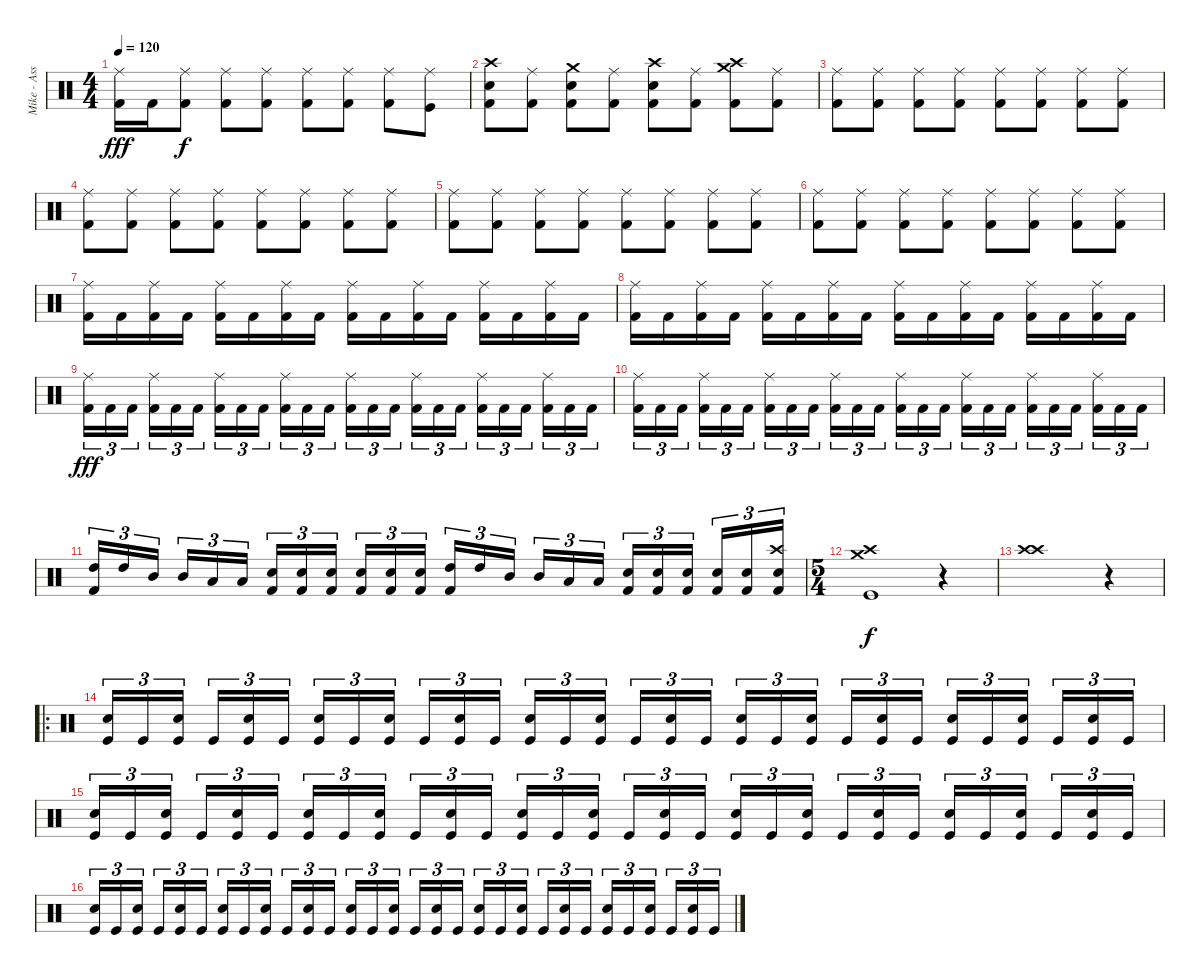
\track ("Mike - Assualt And Battery" "Mike - Ass") {instrument percussion}
\staff {score}
\articulation defaults
\ts (4 4)
\tempo 120
\clef neutral
\ks c
("Ride (middle)" "Kick (hit) 2").16{dy fff} "Kick (hit) 2".16 ("Ride (middle)" "Kick (hit) 2").8{dy f} ("Ride (middle)" "Kick (hit) 2").8 ("Ride (middle)" "Kick (hit) 2").8 ("Ride (middle)" "Kick (hit) 2").8 ("Ride (middle)" "Kick (hit) 2").8 ("Ride (middle)" "Kick (hit) 2").8 ("Ride (middle)" "Kick (hit)").8 |
("Crash high (hit)" "Electric Snare (hit)" "Kick (hit) 2").8 ("Ride (middle)" "Kick (hit) 2").8 ("Crash medium (hit)" "Electric Snare (hit)" "Kick (hit) 2").8 ("Ride (middle)" "Kick (hit) 2").8 ("Crash high (hit)" "Electric Snare (hit)" "Kick (hit) 2").8 ("Ride (middle)" "Kick (hit) 2").8 ("Crash medium (hit)" "Crash high (hit)" "Kick (hit) 2").8 ("Ride (middle)" "Kick (hit) 2").8 |
("Ride (middle)" "Kick (hit) 2").8 ("Ride (middle)" "Kick (hit) 2").8 ("Ride (middle)" "Kick (hit) 2").8 ("Ride (middle)" "Kick (hit) 2").8 ("Ride (middle)" "Kick (hit) 2").8 ("Ride (middle)" "Kick (hit) 2").8 ("Ride (middle)" "Kick (hit) 2").8 ("Ride (middle)" "Kick (hit) 2").8 |
("Ride (middle)" "Kick (hit) 2").8 ("Ride (middle)" "Kick (hit) 2").8 ("Ride (middle)" "Kick (hit) 2").8 ("Ride (middle)" "Kick (hit) 2").8 ("Ride (middle)" "Kick (hit) 2").8 ("Ride (middle)" "Kick (hit) 2").8 ("Ride (middle)" "Kick (hit) 2").8 ("Ride (middle)" "Kick (hit) 2").8 |
("Ride (middle)" "Kick (hit) 2").8 ("Ride (middle)" "Kick (hit) 2").8 ("Ride (middle)" "Kick (hit) 2").8 ("Ride (middle)" "Kick (hit) 2").8 ("Ride (middle)" "Kick (hit) 2").8 ("Ride (middle)" "Kick (hit) 2").8 ("Ride (middle)" "Kick (hit) 2").8 ("Ride (middle)" "Kick (hit) 2").8 |
("Ride (middle)" "Kick (hit) 2").8 ("Ride (middle)" "Kick (hit) 2").8 ("Ride (middle)" "Kick (hit) 2").8 ("Ride (middle)" "Kick (hit) 2").8 ("Ride (middle)" "Kick (hit) 2").8 ("Ride (middle)" "Kick (hit) 2").8 ("Ride (middle)" "Kick (hit) 2").8 ("Ride (middle)" "Kick (hit) 2").8 |
("Ride (middle)" "Kick (hit) 2").16 "Kick (hit) 2".16 ("Ride (middle)" "Kick (hit) 2").16 "Kick (hit) 2".16 ("Ride (middle)" "Kick (hit) 2").16 "Kick (hit) 2".16 ("Ride (middle)" "Kick (hit) 2").16 "Kick (hit) 2".16 ("Ride (middle)" "Kick (hit) 2").16 "Kick (hit) 2".16 ("Ride (middle)" "Kick (hit) 2").16 "Kick (hit) 2".16 ("Ride (middle)" "Kick (hit) 2").16 "Kick (hit) 2".16 ("Ride (middle)" "Kick (hit) 2").16 "Kick (hit) 2".16 |
("Ride (middle)" "Kick (hit) 2").16 "Kick (hit) 2".16 ("Ride (middle)" "Kick (hit) 2").16 "Kick (hit) 2".16 ("Ride (middle)" "Kick (hit) 2").16 "Kick (hit) 2".16 ("Ride (middle)" "Kick (hit) 2").16 "Kick (hit) 2".16 ("Ride (middle)" "Kick (hit) 2").16 "Kick (hit) 2".16 ("Ride (middle)" "Kick (hit) 2").16 "Kick (hit) 2".16 ("Ride (middle)" "Kick (hit) 2").16 "Kick (hit) 2".16 ("Ride (middle)" "Kick (hit) 2").16 "Kick (hit) 2".16 |
("Ride (middle)" "Kick (hit) 2").16{tu (3 2) dy fff} "Kick (hit) 2".16{tu (3 2)} "Kick (hit) 2".16{tu (3 2)} ("Ride (middle)" "Kick (hit) 2").16{tu (3 2)} "Kick (hit) 2".16{tu (3 2)} "Kick (hit) 2".16{tu (3 2)} ("Ride (middle)" "Kick (hit) 2").16{tu (3 2)} "Kick (hit) 2".16{tu (3 2)} "Kick (hit) 2".16{tu (3 2)} ("Ride (middle)" "Kick (hit) 2").16{tu (3 2)} "Kick (hit) 2".16{tu (3 2)} "Kick (hit) 2".16{tu (3 2)} ("Ride (middle)" "Kick (hit) 2").16{tu (3 2)} "Kick (hit) 2".16{tu (3 2)} "Kick (hit) 2".16{tu (3 2)} ("Ride (middle)" "Kick (hit) 2").16{tu (3 2)} "Kick (hit) 2".16{tu (3 2)} "Kick (hit) 2".16{tu (3 2)} ("Ride (middle)" "Kick (hit) 2").16{tu (3 2)} "Kick (hit) 2".16{tu (3 2)} "Kick (hit) 2".16{tu (3 2)} ("Ride (middle)" "Kick (hit) 2").16{tu (3 2)} "Kick (hit) 2".16{tu (3 2)} "Kick (hit) 2".16{tu (3 2)} |
("Ride (middle)" "Kick (hit) 2").16{tu (3 2)} "Kick (hit) 2".16{tu (3 2)} "Kick (hit) 2".16{tu (3 2)} ("Ride (middle)" "Kick (hit) 2").16{tu (3 2)} "Kick (hit) 2".16{tu (3 2)} "Kick (hit) 2".16{tu (3 2)} ("Ride (middle)" "Kick (hit) 2").16{tu (3 2)} "Kick (hit) 2".16{tu (3 2)} "Kick (hit) 2".16{tu (3 2)} ("Ride (middle)" "Kick (hit) 2").16{tu (3 2)} "Kick (hit) 2".16{tu (3 2)} "Kick (hit) 2".16{tu (3 2)} ("Ride (middle)" "Kick (hit) 2").16{tu (3 2)} "Kick (hit) 2".16{tu (3 2)} "Kick (hit) 2".16{tu (3 2)} ("Ride (middle)" "Kick (hit) 2").16{tu (3 2)} "Kick (hit) 2".16{tu (3 2)} "Kick (hit) 2".16{tu (3 2)} ("Ride (middle)" "Kick (hit) 2").16{tu (3 2)} "Kick (hit) 2".16{tu (3 2)} "Kick (hit) 2".16{tu (3 2)} ("Ride (middle)" "Kick (hit) 2").16{tu (3 2)} "Kick (hit) 2".16{tu (3 2)} "Kick (hit) 2".16{tu (3 2)} |
("High Tom (hit)" "Kick (hit) 2").16{tu (3 2)} "High Tom (hit)".16{tu (3 2)} "Mid Tom (hit)".16{tu (3 2)} "Mid Tom (hit)".16{tu (3 2)} "Low Tom (hit)".16{tu (3 2)} "Low Tom (hit)".16{tu (3 2)} ("Electric Snare (hit)" "Kick (hit) 2").16{tu (3 2)} ("Electric Snare (hit)" "Kick (hit) 2").16{tu (3 2)} ("Electric Snare (hit)" "Kick (hit) 2").16{tu (3 2)} ("Electric Snare (hit)" "Kick (hit) 2").16{tu (3 2)} ("Electric Snare (hit)" "Kick (hit) 2").16{tu (3 2)} ("Electric Snare (hit)" "Kick (hit) 2").16{tu (3 2)} ("High Tom (hit)" "Kick (hit) 2").16{tu (3 2)} "High Tom (hit)".16{tu (3 2)} "Mid Tom (hit)".16{tu (3 2)} "Mid Tom (hit)".16{tu (3 2)} "Low Tom (hit)".16{tu (3 2)} "Low Tom (hit)".16{tu (3 2)} ("Electric Snare (hit)" "Kick (hit) 2").16{tu (3 2)} ("Electric Snare (hit)" "Kick (hit) 2").16{tu (3 2)} ("Electric Snare (hit)" "Kick (hit) 2").16{tu (3 2)} ("Electric Snare (hit)" "Kick (hit) 2").16{tu (3 2)} ("Electric Snare (hit)" "Kick (hit) 2").16{tu (3 2)} ("Crash high (hit)" "Electric Snare (hit)" "Kick (hit) 2").16{tu (3 2)} |
\ts (5 4)
("Crash medium (hit)" "Crash high (hit)" "Kick (hit)").1{dy f} r.4 |
("Crash high (hit)" "Crash high (hit)").1 r.4 |
\ro
("Electric Snare (hit)" "Kick (hit)").16{tu (3 2)} "Kick (hit)".16{tu (3 2)} ("Electric Snare (hit)" "Kick (hit)").16{tu (3 2)} "Kick (hit)".16{tu (3 2)} ("Electric Snare (hit)" "Kick (hit)").16{tu (3 2)} "Kick (hit)".16{tu (3 2)} ("Electric Snare (hit)" "Kick (hit)").16{tu (3 2)} "Kick (hit)".16{tu (3 2)} ("Electric Snare (hit)" "Kick (hit)").16{tu (3 2)} "Kick (hit)".16{tu (3 2)} ("Electric Snare (hit)" "Kick (hit)").16{tu (3 2)} "Kick (hit)".16{tu (3 2)} ("Electric Snare (hit)" "Kick (hit)").16{tu (3 2)} "Kick (hit)".16{tu (3 2)} ("Electric Snare (hit)" "Kick (hit)").16{tu (3 2)} "Kick (hit)".16{tu (3 2)} ("Electric Snare (hit)" "Kick (hit)").16{tu (3 2)} "Kick (hit)".16{tu (3 2)} ("Electric Snare (hit)" "Kick (hit)").16{tu (3 2)} "Kick (hit)".16{tu (3 2)} ("Electric Snare (hit)" "Kick (hit)").16{tu (3 2)} "Kick (hit)".16{tu (3 2)} ("Electric Snare (hit)" "Kick (hit)").16{tu (3 2)} "Kick (hit)".16{tu (3 2)} ("Electric Snare (hit)" "Kick (hit)").16{tu (3 2)} "Kick (hit)".16{tu (3 2)} ("Electric Snare (hit)" "Kick (hit)").16{tu (3 2)} "Kick (hit)".16{tu (3 2)} ("Electric Snare (hit)" "Kick (hit)").16{tu (3 2)} "Kick (hit)".16{tu (3 2)} |
("Electric Snare (hit)" "Kick (hit)").16{tu (3 2)} "Kick (hit)".16{tu (3 2)} ("Electric Snare (hit)" "Kick (hit)").16{tu (3 2)} "Kick (hit)".16{tu (3 2)} ("Electric Snare (hit)" "Kick (hit)").16{tu (3 2)} "Kick (hit)".16{tu (3 2)} ("Electric Snare (hit)" "Kick (hit)").16{tu (3 2)} "Kick (hit)".16{tu (3 2)} ("Electric Snare (hit)" "Kick (hit)").16{tu (3 2)} "Kick (hit)".16{tu (3 2)} ("Electric Snare (hit)" "Kick (hit)").16{tu (3 2)} "Kick (hit)".16{tu (3 2)} ("Electric Snare (hit)" "Kick (hit)").16{tu (3 2)} "Kick (hit)".16{tu (3 2)} ("Electric Snare (hit)" "Kick (hit)").16{tu (3 2)} "Kick (hit)".16{tu (3 2)} ("Electric Snare (hit)" "Kick (hit)").16{tu (3 2)} "Kick (hit)".16{tu (3 2)} ("Electric Snare (hit)" "Kick (hit)").16{tu (3 2)} "Kick (hit)".16{tu (3 2)} ("Electric Snare (hit)" "Kick (hit)").16{tu (3 2)} "Kick (hit)".16{tu (3 2)} ("Electric Snare (hit)" "Kick (hit)").16{tu (3 2)} "Kick (hit)".16{tu (3 2)} ("Electric Snare (hit)" "Kick (hit)").16{tu (3 2)} "Kick (hit)".16{tu (3 2)} ("Electric Snare (hit)" "Kick (hit)").16{tu (3 2)} "Kick (hit)".16{tu (3 2)} ("Electric Snare (hit)" "Kick (hit)").16{tu (3 2)} "Kick (hit)".16{tu (3 2)} |
("Electric Snare (hit)" "Kick (hit)").16{tu (3 2)} "Kick (hit)".16{tu (3 2)} ("Electric Snare (hit)" "Kick (hit)").16{tu (3 2)} "Kick (hit)".16{tu (3 2)} ("Electric Snare (hit)" "Kick (hit)").16{tu (3 2)} "Kick (hit)".16{tu (3 2)} ("Electric Snare (hit)" "Kick (hit)").16{tu (3 2)} "Kick (hit)".16{tu (3 2)} ("Electric Snare (hit)" "Kick (hit)").16{tu (3 2)} "Kick (hit)".16{tu (3 2)} ("Electric Snare (hit)" "Kick (hit)").16{tu (3 2)} "Kick (hit)".16{tu (3 2)} ("Electric Snare (hit)" "Kick (hit)").16{tu (3 2)} "Kick (hit)".16{tu (3 2)} ("Electric Snare (hit)" "Kick (hit)").16{tu (3 2)} "Kick (hit)".16{tu (3 2)} ("Electric Snare (hit)" "Kick (hit)").16{tu (3 2)} "Kick (hit)".16{tu (3 2)} ("Electric Snare (hit)" "Kick (hit)").16{tu (3 2)} "Kick (hit)".16{tu (3 2)} ("Electric Snare (hit)" "Kick (hit)").16{tu (3 2)} "Kick (hit)".16{tu (3 2)} ("Electric Snare (hit)" "Kick (hit)").16{tu (3 2)} "Kick (hit)".16{tu (3 2)} ("Electric Snare (hit)" "Kick (hit)").16{tu (3 2)} "Kick (hit)".16{tu (3 2)} ("Electric Snare (hit)" "Kick (hit)").16{tu (3 2)} "Kick (hit)".16{tu (3 2)} ("Electric Snare (hit)" "Kick (hit)").16{tu (3 2)} "Kick (hit)".16{tu (3 2)}
